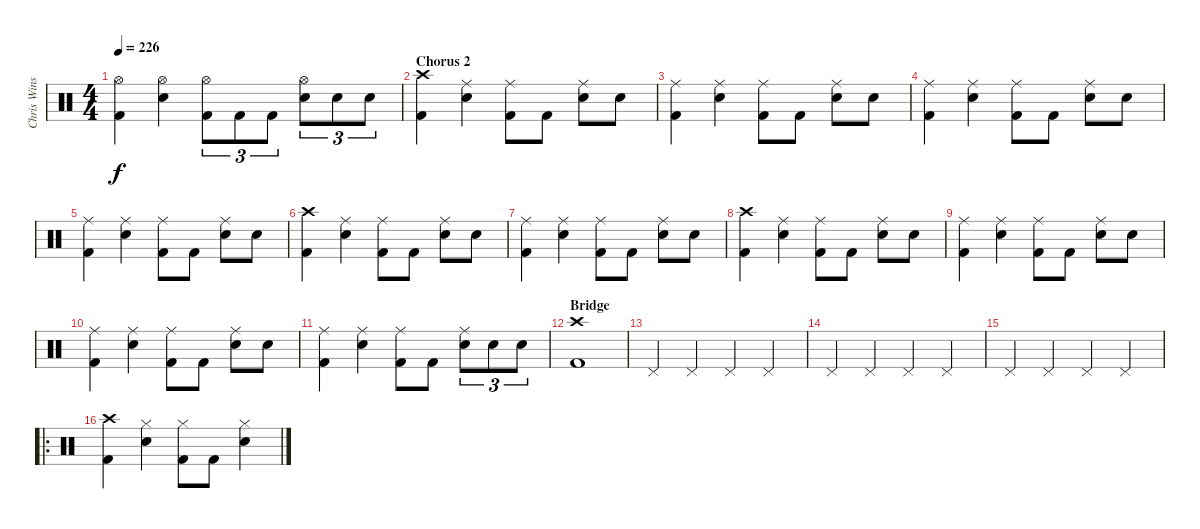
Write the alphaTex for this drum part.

\track ("Chris Winship (Drums)" "Chris Wins") {instrument percussion}
\staff {score}
\articulation defaults
\ts (4 4)
\tempo 226
\clef neutral
\ks c
("Hi-Hat (open)" "Kick (hit) 2").4{dy f} ("Hi-Hat (open)" "Electric Snare (hit)").4 ("Hi-Hat (open)" "Kick (hit) 2").8{tu (3 2)} "Kick (hit) 2".8{tu (3 2)} "Kick (hit) 2".8{tu (3 2)} ("Hi-Hat (open)" "Electric Snare (hit)").8{tu (3 2)} "Electric Snare (hit)".8{tu (3 2)} "Electric Snare (hit)".8{tu (3 2)} |
\section ("" "Chorus 2")
("Crash high (hit)" "Kick (hit) 2").4 ("Ride (middle)" "Electric Snare (hit)").4 ("Ride (middle)" "Kick (hit) 2").8 "Kick (hit) 2".8 ("Ride (middle)" "Electric Snare (hit)").8 "Electric Snare (hit)".8 |
("Ride (middle)" "Kick (hit) 2").4 ("Ride (middle)" "Electric Snare (hit)").4 ("Ride (middle)" "Kick (hit) 2").8 "Kick (hit) 2".8 ("Ride (middle)" "Electric Snare (hit)").8 "Electric Snare (hit)".8 |
("Ride (middle)" "Kick (hit) 2").4 ("Ride (middle)" "Electric Snare (hit)").4 ("Ride (middle)" "Kick (hit) 2").8 "Kick (hit) 2".8 ("Ride (middle)" "Electric Snare (hit)").8 "Electric Snare (hit)".8 |
("Ride (middle)" "Kick (hit) 2").4 ("Ride (middle)" "Electric Snare (hit)").4 ("Ride (middle)" "Kick (hit) 2").8 "Kick (hit) 2".8 ("Ride (middle)" "Electric Snare (hit)").8 "Electric Snare (hit)".8 |
("Crash high (hit)" "Kick (hit) 2").4 ("Ride (middle)" "Electric Snare (hit)").4 ("Ride (middle)" "Kick (hit) 2").8 "Kick (hit) 2".8 ("Ride (middle)" "Electric Snare (hit)").8 "Electric Snare (hit)".8 |
("Ride (middle)" "Kick (hit) 2").4 ("Ride (middle)" "Electric Snare (hit)").4 ("Ride (middle)" "Kick (hit) 2").8 "Kick (hit) 2".8 ("Ride (middle)" "Electric Snare (hit)").8 "Electric Snare (hit)".8 |
("Crash high (hit)" "Kick (hit) 2").4 ("Ride (middle)" "Electric Snare (hit)").4 ("Ride (middle)" "Kick (hit) 2").8 "Kick (hit) 2".8 ("Ride (middle)" "Electric Snare (hit)").8 "Electric Snare (hit)".8 |
("Ride (middle)" "Kick (hit) 2").4 ("Ride (middle)" "Electric Snare (hit)").4 ("Ride (middle)" "Kick (hit) 2").8 "Kick (hit) 2".8 ("Ride (middle)" "Electric Snare (hit)").8 "Electric Snare (hit)".8 |
("Ride (middle)" "Kick (hit) 2").4 ("Ride (middle)" "Electric Snare (hit)").4 ("Ride (middle)" "Kick (hit) 2").8 "Kick (hit) 2".8 ("Ride (middle)" "Electric Snare (hit)").8 "Electric Snare (hit)".8 |
("Ride (middle)" "Kick (hit) 2").4 ("Ride (middle)" "Electric Snare (hit)").4 ("Ride (middle)" "Kick (hit) 2").8 "Kick (hit) 2".8 ("Ride (middle)" "Electric Snare (hit)").8{tu (3 2)} "Electric Snare (hit)".8{tu (3 2)} "Electric Snare (hit)".8{tu (3 2)} |
\section ("" "Bridge")
("Crash high (hit)" "Kick (hit) 2").1 |
"Pedal Hi-Hat (hit)".4 "Pedal Hi-Hat (hit)".4 "Pedal Hi-Hat (hit)".4 "Pedal Hi-Hat (hit)".4 |
"Pedal Hi-Hat (hit)".4 "Pedal Hi-Hat (hit)".4 "Pedal Hi-Hat (hit)".4 "Pedal Hi-Hat (hit)".4 |
"Pedal Hi-Hat (hit)".4 "Pedal Hi-Hat (hit)".4 "Pedal Hi-Hat (hit)".4 "Pedal Hi-Hat (hit)".4 |
\ro
("Crash high (hit)" "Kick (hit) 2").4 ("Hi-Hat (closed)" "Electric Snare (hit)").4 ("Hi-Hat (closed)" "Kick (hit) 2").8 "Kick (hit) 2".8 ("Hi-Hat (closed)" "Electric Snare (hit)").4
